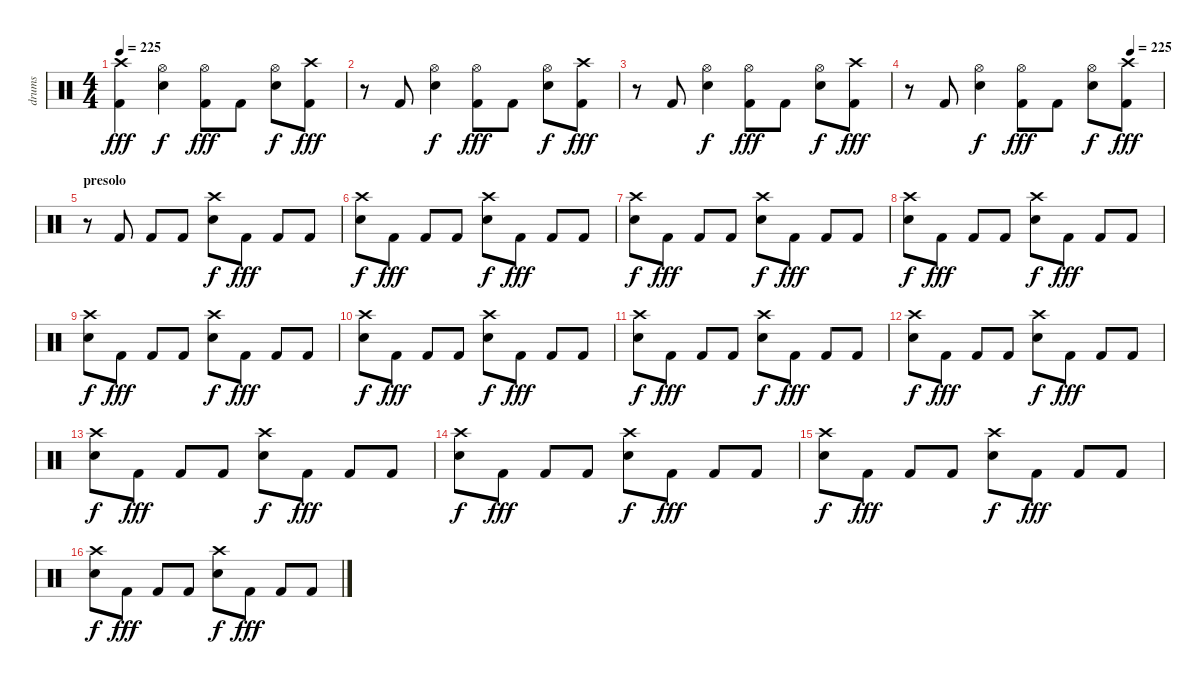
\track ("drums" "drums") {instrument percussion}
\staff {score}
\articulation defaults
\ts (4 4)
\tempo 225
\clef neutral
\ks c
("Crash high (hit)" "Kick (hit) 2").4{dy fff} ("Hi-Hat (open)" "Snare (hit) 2").4{dy f} ("Hi-Hat (open)" "Kick (hit) 2").8{dy fff} "Kick (hit) 2".8 ("Hi-Hat (open)" "Snare (hit) 2").8{dy f} ("Crash high (hit)" "Kick (hit) 2").8{dy fff} |
r.8 "Kick (hit) 2".8 ("Hi-Hat (open)" "Snare (hit) 2").4{dy f} ("Hi-Hat (open)" "Kick (hit) 2").8{dy fff} "Kick (hit) 2".8 ("Hi-Hat (open)" "Snare (hit) 2").8{dy f} ("Crash high (hit)" "Kick (hit) 2").8{dy fff} |
r.8 "Kick (hit) 2".8 ("Hi-Hat (open)" "Snare (hit) 2").4{dy f} ("Hi-Hat (open)" "Kick (hit) 2").8{dy fff} "Kick (hit) 2".8 ("Hi-Hat (open)" "Snare (hit) 2").8{dy f} ("Crash high (hit)" "Kick (hit) 2").8{dy fff} |
\tempo (225 0.875)
r.8 "Kick (hit) 2".8 ("Hi-Hat (open)" "Snare (hit) 2").4{dy f} ("Hi-Hat (open)" "Kick (hit) 2").8{dy fff} "Kick (hit) 2".8 ("Hi-Hat (open)" "Snare (hit) 2").8{dy f} ("Crash high (hit)" "Kick (hit) 2").8{dy fff} |
\section ("" "presolo")
r.8 "Kick (hit) 2".8 "Kick (hit) 2".8 "Kick (hit) 2".8 ("Crash high (hit)" "Snare (hit) 2").8{dy f} "Kick (hit) 2".8{dy fff} "Kick (hit) 2".8 "Kick (hit) 2".8 |
("Crash high (hit)" "Snare (hit) 2").8{dy f} "Kick (hit) 2".8{dy fff} "Kick (hit) 2".8 "Kick (hit) 2".8 ("Crash high (hit)" "Snare (hit) 2").8{dy f} "Kick (hit) 2".8{dy fff} "Kick (hit) 2".8 "Kick (hit) 2".8 |
("Crash high (hit)" "Snare (hit) 2").8{dy f} "Kick (hit) 2".8{dy fff} "Kick (hit) 2".8 "Kick (hit) 2".8 ("Crash high (hit)" "Snare (hit) 2").8{dy f} "Kick (hit) 2".8{dy fff} "Kick (hit) 2".8 "Kick (hit) 2".8 |
("Crash high (hit)" "Snare (hit) 2").8{dy f} "Kick (hit) 2".8{dy fff} "Kick (hit) 2".8 "Kick (hit) 2".8 ("Crash high (hit)" "Snare (hit) 2").8{dy f} "Kick (hit) 2".8{dy fff} "Kick (hit) 2".8 "Kick (hit) 2".8 |
("Crash high (hit)" "Snare (hit) 2").8{dy f} "Kick (hit) 2".8{dy fff} "Kick (hit) 2".8 "Kick (hit) 2".8 ("Crash high (hit)" "Snare (hit) 2").8{dy f} "Kick (hit) 2".8{dy fff} "Kick (hit) 2".8 "Kick (hit) 2".8 |
("Crash high (hit)" "Snare (hit) 2").8{dy f} "Kick (hit) 2".8{dy fff} "Kick (hit) 2".8 "Kick (hit) 2".8 ("Crash high (hit)" "Snare (hit) 2").8{dy f} "Kick (hit) 2".8{dy fff} "Kick (hit) 2".8 "Kick (hit) 2".8 |
("Crash high (hit)" "Snare (hit) 2").8{dy f} "Kick (hit) 2".8{dy fff} "Kick (hit) 2".8 "Kick (hit) 2".8 ("Crash high (hit)" "Snare (hit) 2").8{dy f} "Kick (hit) 2".8{dy fff} "Kick (hit) 2".8 "Kick (hit) 2".8 |
("Crash high (hit)" "Snare (hit) 2").8{dy f} "Kick (hit) 2".8{dy fff} "Kick (hit) 2".8 "Kick (hit) 2".8 ("Crash high (hit)" "Snare (hit) 2").8{dy f} "Kick (hit) 2".8{dy fff} "Kick (hit) 2".8 "Kick (hit) 2".8 |
("Crash high (hit)" "Snare (hit) 2").8{dy f} "Kick (hit) 2".8{dy fff} "Kick (hit) 2".8 "Kick (hit) 2".8 ("Crash high (hit)" "Snare (hit) 2").8{dy f} "Kick (hit) 2".8{dy fff} "Kick (hit) 2".8 "Kick (hit) 2".8 |
("Crash high (hit)" "Snare (hit) 2").8{dy f} "Kick (hit) 2".8{dy fff} "Kick (hit) 2".8 "Kick (hit) 2".8 ("Crash high (hit)" "Snare (hit) 2").8{dy f} "Kick (hit) 2".8{dy fff} "Kick (hit) 2".8 "Kick (hit) 2".8 |
("Crash high (hit)" "Snare (hit) 2").8{dy f} "Kick (hit) 2".8{dy fff} "Kick (hit) 2".8 "Kick (hit) 2".8 ("Crash high (hit)" "Snare (hit) 2").8{dy f} "Kick (hit) 2".8{dy fff} "Kick (hit) 2".8 "Kick (hit) 2".8 |
("Crash high (hit)" "Snare (hit) 2").8{dy f} "Kick (hit) 2".8{dy fff} "Kick (hit) 2".8 "Kick (hit) 2".8 ("Crash high (hit)" "Snare (hit) 2").8{dy f} "Kick (hit) 2".8{dy fff} "Kick (hit) 2".8 "Kick (hit) 2".8
